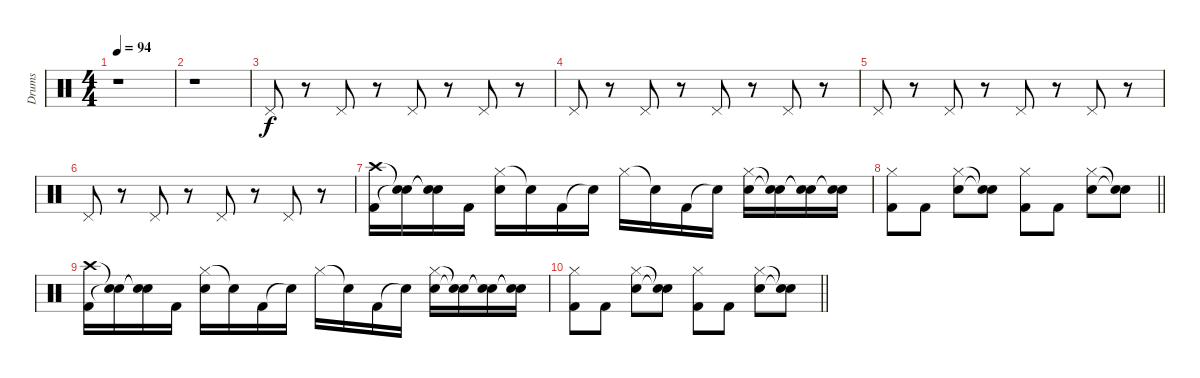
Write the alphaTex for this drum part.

\track ("Drums" "Drums") {instrument percussion}
\staff {score}
\articulation defaults
\ts (4 4)
\tempo 94
\clef neutral
\ks c
r.1{dy f} |
r.1 |
"Pedal Hi-Hat (hit)".8 r.8 "Pedal Hi-Hat (hit)".8 r.8 "Pedal Hi-Hat (hit)".8 r.8 "Pedal Hi-Hat (hit)".8 r.8 |
"Pedal Hi-Hat (hit)".8 r.8 "Pedal Hi-Hat (hit)".8 r.8 "Pedal Hi-Hat (hit)".8 r.8 "Pedal Hi-Hat (hit)".8 r.8 |
"Pedal Hi-Hat (hit)".8 r.8 "Pedal Hi-Hat (hit)".8 r.8 "Pedal Hi-Hat (hit)".8 r.8 "Pedal Hi-Hat (hit)".8 r.8 |
"Pedal Hi-Hat (hit)".8 r.8 "Pedal Hi-Hat (hit)".8 r.8 "Pedal Hi-Hat (hit)".8 r.8 "Pedal Hi-Hat (hit)".8 r.8 |
("Crash high (hit)" "Kick (hit) 2").16 ("Snare (hit)"{t} "Snare (hit)"{t}).16 ("Snare (hit)"{t} "Snare (hit)"{t}).16 "Kick (hit) 2".16 ("Hi-Hat (closed)" "Snare (hit) 2").16 "Snare (hit)"{t}.16 "Kick (hit) 2".16 "Snare (hit)"{t}.16 "Hi-Hat (closed)".16 "Snare (hit)"{t}.16 "Kick (hit) 2".16 "Snare (hit)"{t}.16 ("Hi-Hat (closed)" "Snare (hit) 2").16 ("Snare (hit)"{t} "Snare (hit)"{t}).16 ("Snare (hit)"{t} "Snare (hit)"{t}).16 ("Snare (hit)"{t} "Snare (hit)"{t}).16 |
\barLineRight lightlight
("Hi-Hat (closed)" "Kick (hit) 2").8 "Kick (hit) 2".8 ("Hi-Hat (closed)" "Snare (hit) 2").8 ("Snare (hit)"{t} "Snare (hit)"{t}).8 ("Hi-Hat (closed)" "Kick (hit) 2").8 "Kick (hit) 2".8 ("Hi-Hat (closed)" "Snare (hit) 2").8 ("Snare (hit)"{t} "Snare (hit)"{t}).8 |
("Crash high (hit)" "Kick (hit) 2").16 ("Snare (hit)"{t} "Snare (hit)"{t}).16 ("Snare (hit)"{t} "Snare (hit)"{t}).16 "Kick (hit) 2".16 ("Hi-Hat (closed)" "Snare (hit) 2").16 "Snare (hit)"{t}.16 "Kick (hit) 2".16 "Snare (hit)"{t}.16 "Hi-Hat (closed)".16 "Snare (hit)"{t}.16 "Kick (hit) 2".16 "Snare (hit)"{t}.16 ("Hi-Hat (closed)" "Snare (hit) 2").16 ("Snare (hit)"{t} "Snare (hit)"{t}).16 ("Snare (hit)"{t} "Snare (hit)"{t}).16 ("Snare (hit)"{t} "Snare (hit)"{t}).16 |
\barLineRight lightlight
("Hi-Hat (closed)" "Kick (hit) 2").8 "Kick (hit) 2".8 ("Hi-Hat (closed)" "Snare (hit) 2").8 ("Snare (hit)"{t} "Snare (hit)"{t}).8 ("Hi-Hat (closed)" "Kick (hit) 2").8 "Kick (hit) 2".8 ("Hi-Hat (closed)" "Snare (hit) 2").8 ("Snare (hit)"{t} "Snare (hit)"{t}).8
